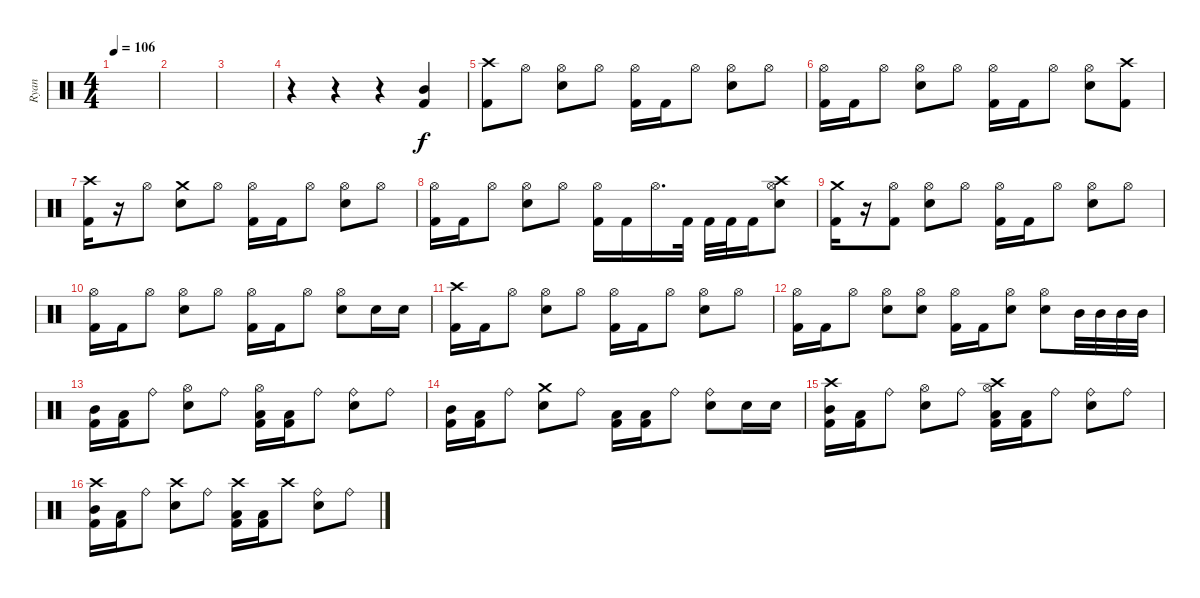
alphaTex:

\track ("Ryan" "Ryan") {instrument percussion}
\staff {score}
\articulation defaults
\ts (4 4)
\tempo 106
\clef neutral
\ks c
|
|
|
r.4 r.4 r.4 ("Mid Tom (hit)" "Kick (hit) 2").4 |
("Crash high (hit)" "Kick (hit) 2").8 "Hi-Hat (open)".8 ("Hi-Hat (open)" "Electric Snare (hit)").8 "Hi-Hat (open)".8 ("Hi-Hat (open)" "Kick (hit) 2").16 "Kick (hit) 2".16 "Hi-Hat (open)".8 ("Hi-Hat (open)" "Electric Snare (hit)").8 "Hi-Hat (open)".8 |
("Hi-Hat (open)" "Kick (hit) 2").16 "Kick (hit) 2".16 "Hi-Hat (open)".8 ("Hi-Hat (open)" "Electric Snare (hit)").8 "Hi-Hat (open)".8 ("Hi-Hat (open)" "Kick (hit) 2").16 "Kick (hit) 2".16 "Hi-Hat (open)".8 ("Hi-Hat (open)" "Electric Snare (hit)").8 ("Crash high (hit)" "Kick (hit) 2").8 |
("Crash high (hit)" "Kick (hit) 2").16 r.16 "Hi-Hat (open)".8 ("Crash medium (hit)" "Electric Snare (hit)").8 "Hi-Hat (open)".8 ("Hi-Hat (open)" "Kick (hit) 2").16 "Kick (hit) 2".16 "Hi-Hat (open)".8 ("Hi-Hat (open)" "Electric Snare (hit)").8 "Hi-Hat (open)".8 |
("Hi-Hat (open)" "Kick (hit) 2").16 "Kick (hit) 2".16 "Hi-Hat (open)".8 ("Hi-Hat (open)" "Electric Snare (hit)").8 "Hi-Hat (open)".8 ("Hi-Hat (open)" "Kick (hit) 2").16 "Kick (hit) 2".16 "Hi-Hat (open)".16{d} "Kick (hit) 2".32 "Kick (hit) 2".32 "Kick (hit) 2".32 "Kick (hit) 2".16 ("Hi-Hat (open)" "Crash high (hit)" "Electric Snare (hit)").8 |
("Crash medium (hit)" "Kick (hit) 2").16 r.16 ("Hi-Hat (open)" "Kick (hit) 2").8 ("Hi-Hat (open)" "Electric Snare (hit)").8 "Hi-Hat (open)".8 ("Hi-Hat (open)" "Kick (hit) 2").16 "Kick (hit) 2".16 "Hi-Hat (open)".8 ("Hi-Hat (open)" "Electric Snare (hit)").8 "Hi-Hat (open)".8 |
("Hi-Hat (open)" "Kick (hit) 2").16 "Kick (hit) 2".16 "Hi-Hat (open)".8 ("Hi-Hat (open)" "Electric Snare (hit)").8 "Hi-Hat (open)".8 ("Hi-Hat (open)" "Kick (hit) 2").16 "Kick (hit) 2".16 "Hi-Hat (open)".8 ("Hi-Hat (open)" "Electric Snare (hit)").8 "Electric Snare (hit)".16 "Electric Snare (hit)".16 |
("Crash high (hit)" "Kick (hit) 2").16 "Kick (hit) 2".16 "Hi-Hat (open)".8 ("Hi-Hat (open)" "Electric Snare (hit)").8 "Hi-Hat (open)".8 ("Hi-Hat (open)" "Kick (hit) 2").16 "Kick (hit) 2".16 "Hi-Hat (open)".8 ("Hi-Hat (open)" "Electric Snare (hit)").8 "Hi-Hat (open)".8 |
("Hi-Hat (open)" "Kick (hit) 2").16 "Kick (hit) 2".16 "Hi-Hat (open)".8 ("Hi-Hat (open)" "Electric Snare (hit)").8 ("Hi-Hat (open)" "Electric Snare (hit)").8 ("Hi-Hat (open)" "Kick (hit) 2").16 "Kick (hit) 2".16 ("Hi-Hat (open)" "Electric Snare (hit)").8 ("Hi-Hat (open)" "Electric Snare (hit)").8 "Mid Tom (hit)".32 "Mid Tom (hit)".32 "Mid Tom (hit)".32 "Mid Tom (hit)".32 |
("Mid Tom (hit)" "Kick (hit) 2").16 ("Low Tom (hit)" "Kick (hit) 2").16 "Ride (bell)".8 ("Hi-Hat (open)" "Electric Snare (hit)").8 "Ride (bell)".8 ("Hi-Hat (open)" "Low Tom (hit)" "Kick (hit) 2").16 ("Low Tom (hit)" "Kick (hit) 2").16 "Ride (bell)".8 ("Ride (bell)" "Electric Snare (hit)").8 "Ride (bell)".8 |
("Mid Tom (hit)" "Kick (hit) 2").16 ("Low Tom (hit)" "Kick (hit) 2").16 "Ride (bell)".8 ("Crash medium (hit)" "Electric Snare (hit)").8 "Ride (bell)".8 ("Low Tom (hit)" "Kick (hit) 2").16 ("Low Tom (hit)" "Kick (hit) 2").16 "Ride (bell)".8 ("Ride (bell)" "Electric Snare (hit)").8 "Electric Snare (hit)".16 "Electric Snare (hit)".16 |
("Crash high (hit)" "Mid Tom (hit)" "Kick (hit) 2").16 ("Low Tom (hit)" "Kick (hit) 2").16 "Ride (bell)".8 ("Hi-Hat (open)" "Electric Snare (hit)").8 "Ride (bell)".8 ("Crash high (hit)" "Hi-Hat (open)" "Low Tom (hit)" "Kick (hit) 2").16 ("Low Tom (hit)" "Kick (hit) 2").16 "Ride (bell)".8 ("Ride (bell)" "Electric Snare (hit)").8 "Ride (bell)".8 |
("Crash high (hit)" "Mid Tom (hit)" "Kick (hit) 2").16 ("Low Tom (hit)" "Kick (hit) 2").16 "Ride (bell)".8 ("Crash high (hit)" "Electric Snare (hit)").8 "Ride (bell)".8 ("Crash high (hit)" "Low Tom (hit)" "Kick (hit) 2").16 ("Low Tom (hit)" "Kick (hit) 2").16 "Crash high (hit)".8 ("Ride (bell)" "Electric Snare (hit)").8 "Ride (bell)".8
